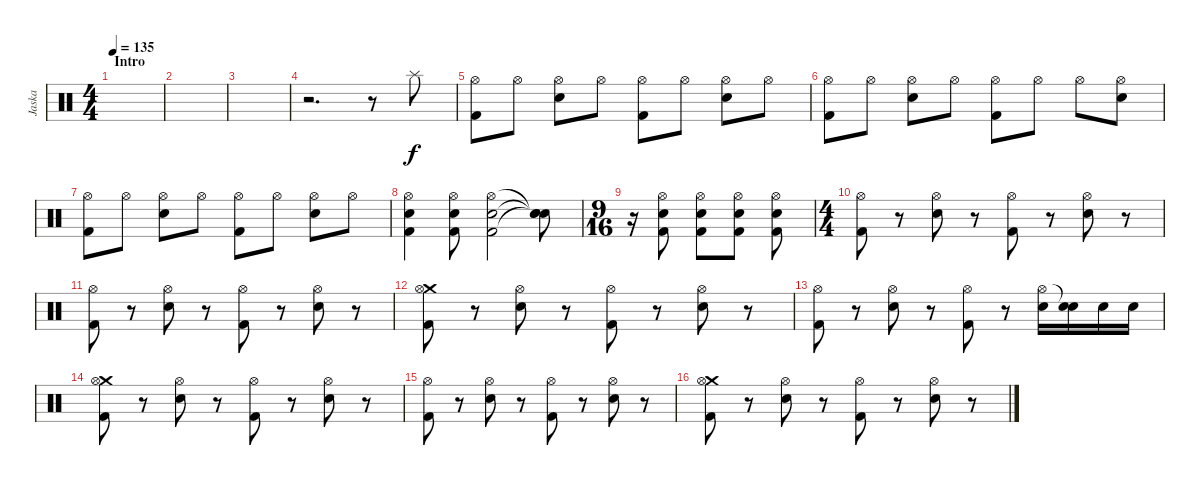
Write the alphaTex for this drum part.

\track ("Jaska" "Jaska") {instrument percussion}
\staff {score}
\articulation defaults
\ts (4 4)
\section ("" "Intro")
\tempo 135
\clef neutral
\ks c
|
|
|
r.2{d} r.8 "Splash (hit)".8 |
("Hi-Hat (open)" "Kick (hit) 2").8 "Hi-Hat (open)".8 ("Hi-Hat (open)" "Electric Snare (hit)").8 "Hi-Hat (open)".8 ("Hi-Hat (open)" "Kick (hit) 2").8 "Hi-Hat (open)".8 ("Hi-Hat (open)" "Electric Snare (hit)").8 "Hi-Hat (open)".8 |
("Hi-Hat (open)" "Kick (hit) 2").8 "Hi-Hat (open)".8 ("Hi-Hat (open)" "Electric Snare (hit)").8 "Hi-Hat (open)".8 ("Hi-Hat (open)" "Kick (hit) 2").8 "Hi-Hat (open)".8 "Hi-Hat (open)".8 ("Hi-Hat (open)" "Electric Snare (hit)").8 |
("Hi-Hat (open)" "Kick (hit) 2").8 "Hi-Hat (open)".8 ("Hi-Hat (open)" "Electric Snare (hit)").8 "Hi-Hat (open)".8 ("Hi-Hat (open)" "Kick (hit) 2").8 "Hi-Hat (open)".8 ("Hi-Hat (open)" "Electric Snare (hit)").8 "Hi-Hat (open)".8 |
("Hi-Hat (open)" "Electric Snare (hit)" "Kick (hit) 2").4 ("Hi-Hat (open)" "Electric Snare (hit)" "Kick (hit) 2").8 ("Hi-Hat (open)" "Electric Snare (hit)" "Kick (hit) 2").2 ("Snare (hit)"{t} "Snare (hit)"{t} "Snare (hit)"{t}).8 |
\ts (9 16)
r.16 ("Hi-Hat (open)" "Electric Snare (hit)" "Kick (hit) 2").8 ("Hi-Hat (open)" "Electric Snare (hit)" "Kick (hit) 2").8 ("Hi-Hat (open)" "Electric Snare (hit)" "Kick (hit) 2").8 ("Hi-Hat (open)" "Electric Snare (hit)" "Kick (hit) 2").8 |
\ts (4 4)
("Hi-Hat (open)" "Kick (hit) 2").8 r.8 ("Hi-Hat (open)" "Electric Snare (hit)").8 r.8 ("Hi-Hat (open)" "Kick (hit) 2").8 r.8 ("Hi-Hat (open)" "Electric Snare (hit)").8 r.8 |
("Hi-Hat (open)" "Kick (hit) 2").8 r.8 ("Hi-Hat (open)" "Electric Snare (hit)").8 r.8 ("Hi-Hat (open)" "Kick (hit) 2").8 r.8 ("Hi-Hat (open)" "Electric Snare (hit)").8 r.8 |
("Crash medium (hit)" "Hi-Hat (open)" "Kick (hit) 2").8 r.8 ("Hi-Hat (open)" "Electric Snare (hit)").8 r.8 ("Hi-Hat (open)" "Kick (hit) 2").8 r.8 ("Hi-Hat (open)" "Electric Snare (hit)").8 r.8 |
("Hi-Hat (open)" "Kick (hit) 2").8 r.8 ("Hi-Hat (open)" "Electric Snare (hit)").8 r.8 ("Hi-Hat (open)" "Kick (hit) 2").8 r.8 ("Hi-Hat (open)" "Electric Snare (hit)").16 ("Snare (hit)"{t} "Electric Snare (hit)").16 "Electric Snare (hit)".16 "Electric Snare (hit)".16 |
("Crash medium (hit)" "Hi-Hat (open)" "Kick (hit) 2").8 r.8 ("Hi-Hat (open)" "Electric Snare (hit)").8 r.8 ("Hi-Hat (open)" "Kick (hit) 2").8 r.8 ("Hi-Hat (open)" "Electric Snare (hit)").8 r.8 |
("Hi-Hat (open)" "Kick (hit) 2").8 r.8 ("Hi-Hat (open)" "Electric Snare (hit)").8 r.8 ("Hi-Hat (open)" "Kick (hit) 2").8 r.8 ("Hi-Hat (open)" "Electric Snare (hit)").8 r.8 |
("Crash medium (hit)" "Hi-Hat (open)" "Kick (hit) 2").8 r.8 ("Hi-Hat (open)" "Electric Snare (hit)").8 r.8 ("Hi-Hat (open)" "Kick (hit) 2").8 r.8 ("Hi-Hat (open)" "Electric Snare (hit)").8 r.8
